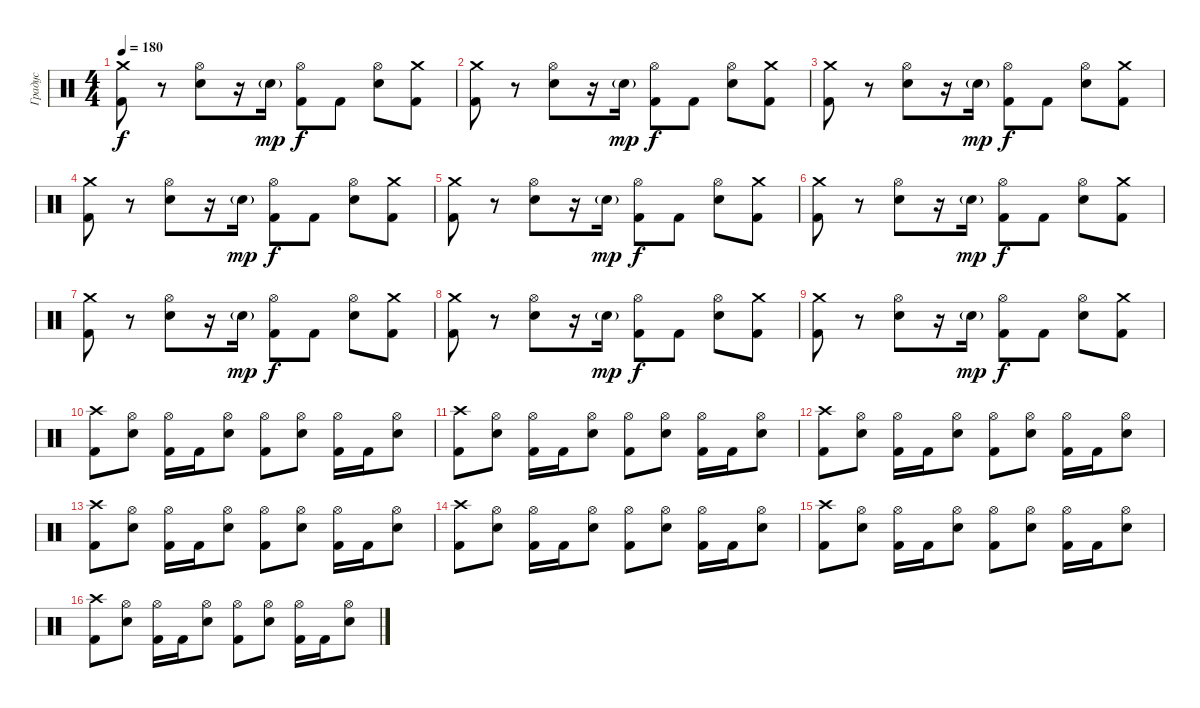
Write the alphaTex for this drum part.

\track ("Градус" "Градус") {instrument percussion}
\staff {score}
\articulation defaults
\ts (4 4)
\tempo 180
\clef neutral
\ks c
("Kick (hit) 2" "Crash medium (hit)").8{dy f} r.8 ("Electric Snare (hit)" "Hi-Hat (open)").8 r.16 "Electric Snare (hit)"{g}.16{dy mp} ("Kick (hit) 2" "Hi-Hat (open)").8{dy f} "Kick (hit) 2".8 ("Electric Snare (hit)" "Hi-Hat (open)").8 ("Kick (hit) 2" "Crash medium (hit)").8 |
("Kick (hit) 2" "Crash medium (hit)").8 r.8 ("Electric Snare (hit)" "Hi-Hat (open)").8 r.16 "Electric Snare (hit)"{g}.16{dy mp} ("Kick (hit) 2" "Hi-Hat (open)").8{dy f} "Kick (hit) 2".8 ("Electric Snare (hit)" "Hi-Hat (open)").8 ("Kick (hit) 2" "Crash medium (hit)").8 |
("Kick (hit) 2" "Crash medium (hit)").8 r.8 ("Electric Snare (hit)" "Hi-Hat (open)").8 r.16 "Electric Snare (hit)"{g}.16{dy mp} ("Kick (hit) 2" "Hi-Hat (open)").8{dy f} "Kick (hit) 2".8 ("Electric Snare (hit)" "Hi-Hat (open)").8 ("Kick (hit) 2" "Crash medium (hit)").8 |
("Kick (hit) 2" "Crash medium (hit)").8 r.8 ("Electric Snare (hit)" "Hi-Hat (open)").8 r.16 "Electric Snare (hit)"{g}.16{dy mp} ("Kick (hit) 2" "Hi-Hat (open)").8{dy f} "Kick (hit) 2".8 ("Electric Snare (hit)" "Hi-Hat (open)").8 ("Kick (hit) 2" "Crash medium (hit)").8 |
("Kick (hit) 2" "Crash medium (hit)").8 r.8 ("Electric Snare (hit)" "Hi-Hat (open)").8 r.16 "Electric Snare (hit)"{g}.16{dy mp} ("Kick (hit) 2" "Hi-Hat (open)").8{dy f} "Kick (hit) 2".8 ("Electric Snare (hit)" "Hi-Hat (open)").8 ("Kick (hit) 2" "Crash medium (hit)").8 |
("Kick (hit) 2" "Crash medium (hit)").8 r.8 ("Electric Snare (hit)" "Hi-Hat (open)").8 r.16 "Electric Snare (hit)"{g}.16{dy mp} ("Kick (hit) 2" "Hi-Hat (open)").8{dy f} "Kick (hit) 2".8 ("Electric Snare (hit)" "Hi-Hat (open)").8 ("Kick (hit) 2" "Crash medium (hit)").8 |
("Kick (hit) 2" "Crash medium (hit)").8 r.8 ("Electric Snare (hit)" "Hi-Hat (open)").8 r.16 "Electric Snare (hit)"{g}.16{dy mp} ("Kick (hit) 2" "Hi-Hat (open)").8{dy f} "Kick (hit) 2".8 ("Electric Snare (hit)" "Hi-Hat (open)").8 ("Kick (hit) 2" "Crash medium (hit)").8 |
("Kick (hit) 2" "Crash medium (hit)").8 r.8 ("Electric Snare (hit)" "Hi-Hat (open)").8 r.16 "Electric Snare (hit)"{g}.16{dy mp} ("Kick (hit) 2" "Hi-Hat (open)").8{dy f} "Kick (hit) 2".8 ("Electric Snare (hit)" "Hi-Hat (open)").8 ("Kick (hit) 2" "Crash medium (hit)").8 |
("Kick (hit) 2" "Crash medium (hit)").8 r.8 ("Electric Snare (hit)" "Hi-Hat (open)").8 r.16 "Electric Snare (hit)"{g}.16{dy mp} ("Kick (hit) 2" "Hi-Hat (open)").8{dy f} "Kick (hit) 2".8 ("Electric Snare (hit)" "Hi-Hat (open)").8 ("Kick (hit) 2" "Crash medium (hit)").8 |
("Kick (hit) 2" "Crash high (hit)").8 ("Electric Snare (hit)" "Hi-Hat (open)").8 ("Kick (hit) 2" "Hi-Hat (open)").16 "Kick (hit) 2".16 ("Electric Snare (hit)" "Hi-Hat (open)").8 ("Kick (hit) 2" "Hi-Hat (open)").8 ("Electric Snare (hit)" "Hi-Hat (open)").8 ("Kick (hit) 2" "Hi-Hat (open)").16 "Kick (hit) 2".16 ("Electric Snare (hit)" "Hi-Hat (open)").8 |
("Kick (hit) 2" "Crash high (hit)").8 ("Electric Snare (hit)" "Hi-Hat (open)").8 ("Kick (hit) 2" "Hi-Hat (open)").16 "Kick (hit) 2".16 ("Electric Snare (hit)" "Hi-Hat (open)").8 ("Kick (hit) 2" "Hi-Hat (open)").8 ("Electric Snare (hit)" "Hi-Hat (open)").8 ("Kick (hit) 2" "Hi-Hat (open)").16 "Kick (hit) 2".16 ("Electric Snare (hit)" "Hi-Hat (open)").8 |
("Kick (hit) 2" "Crash high (hit)").8 ("Electric Snare (hit)" "Hi-Hat (open)").8 ("Kick (hit) 2" "Hi-Hat (open)").16 "Kick (hit) 2".16 ("Electric Snare (hit)" "Hi-Hat (open)").8 ("Kick (hit) 2" "Hi-Hat (open)").8 ("Electric Snare (hit)" "Hi-Hat (open)").8 ("Kick (hit) 2" "Hi-Hat (open)").16 "Kick (hit) 2".16 ("Electric Snare (hit)" "Hi-Hat (open)").8 |
("Kick (hit) 2" "Crash high (hit)").8 ("Electric Snare (hit)" "Hi-Hat (open)").8 ("Kick (hit) 2" "Hi-Hat (open)").16 "Kick (hit) 2".16 ("Electric Snare (hit)" "Hi-Hat (open)").8 ("Kick (hit) 2" "Hi-Hat (open)").8 ("Electric Snare (hit)" "Hi-Hat (open)").8 ("Kick (hit) 2" "Hi-Hat (open)").16 "Kick (hit) 2".16 ("Electric Snare (hit)" "Hi-Hat (open)").8 |
("Kick (hit) 2" "Crash high (hit)").8 ("Electric Snare (hit)" "Hi-Hat (open)").8 ("Kick (hit) 2" "Hi-Hat (open)").16 "Kick (hit) 2".16 ("Electric Snare (hit)" "Hi-Hat (open)").8 ("Kick (hit) 2" "Hi-Hat (open)").8 ("Electric Snare (hit)" "Hi-Hat (open)").8 ("Kick (hit) 2" "Hi-Hat (open)").16 "Kick (hit) 2".16 ("Electric Snare (hit)" "Hi-Hat (open)").8 |
("Kick (hit) 2" "Crash high (hit)").8 ("Electric Snare (hit)" "Hi-Hat (open)").8 ("Kick (hit) 2" "Hi-Hat (open)").16 "Kick (hit) 2".16 ("Electric Snare (hit)" "Hi-Hat (open)").8 ("Kick (hit) 2" "Hi-Hat (open)").8 ("Electric Snare (hit)" "Hi-Hat (open)").8 ("Kick (hit) 2" "Hi-Hat (open)").16 "Kick (hit) 2".16 ("Electric Snare (hit)" "Hi-Hat (open)").8 |
("Kick (hit) 2" "Crash high (hit)").8 ("Electric Snare (hit)" "Hi-Hat (open)").8 ("Kick (hit) 2" "Hi-Hat (open)").16 "Kick (hit) 2".16 ("Electric Snare (hit)" "Hi-Hat (open)").8 ("Kick (hit) 2" "Hi-Hat (open)").8 ("Electric Snare (hit)" "Hi-Hat (open)").8 ("Kick (hit) 2" "Hi-Hat (open)").16 "Kick (hit) 2".16 ("Electric Snare (hit)" "Hi-Hat (open)").8
